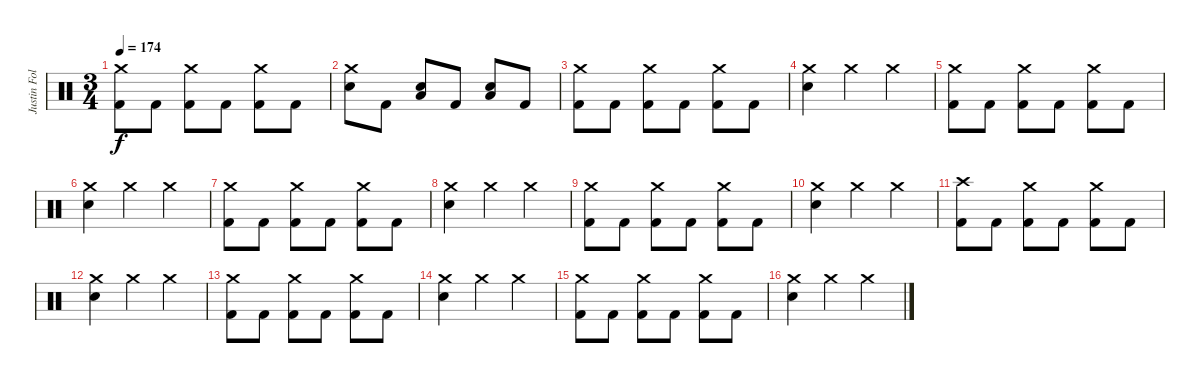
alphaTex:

\track ("Justin Foley" "Justin Fol") {instrument percussion}
\staff {score}
\articulation defaults
\ts (3 4)
\tempo 174
\clef neutral
\ks c
("Crash medium (hit)" "Kick (hit) 2").8{dy f} "Kick (hit) 2".8 ("Crash medium (hit)" "Kick (hit) 2").8 "Kick (hit) 2".8 ("Crash medium (hit)" "Kick (hit) 2").8 "Kick (hit) 2".8 |
("Crash medium (hit)" "Electric Snare (hit)").8 "Kick (hit) 2".8 ("Electric Snare (hit)" "Low Floor Tom (hit)").8 "Kick (hit) 2".8 ("Electric Snare (hit)" "Low Floor Tom (hit)").8 "Kick (hit) 2".8 |
("Crash medium (hit)" "Kick (hit) 2").8 "Kick (hit) 2".8 ("Crash medium (hit)" "Kick (hit) 2").8 "Kick (hit) 2".8 ("Crash medium (hit)" "Kick (hit) 2").8 "Kick (hit) 2".8 |
("Crash medium (hit)" "Electric Snare (hit)").4 "Crash medium (hit)".4 "Crash medium (hit)".4 |
("Crash medium (hit)" "Kick (hit) 2").8 "Kick (hit) 2".8 ("Crash medium (hit)" "Kick (hit) 2").8 "Kick (hit) 2".8 ("Crash medium (hit)" "Kick (hit) 2").8 "Kick (hit) 2".8 |
("Crash medium (hit)" "Electric Snare (hit)").4 "Crash medium (hit)".4 "Crash medium (hit)".4 |
("Crash medium (hit)" "Kick (hit) 2").8 "Kick (hit) 2".8 ("Crash medium (hit)" "Kick (hit) 2").8 "Kick (hit) 2".8 ("Crash medium (hit)" "Kick (hit) 2").8 "Kick (hit) 2".8 |
("Crash medium (hit)" "Electric Snare (hit)").4 "Crash medium (hit)".4 "Crash medium (hit)".4 |
("Crash medium (hit)" "Kick (hit) 2").8 "Kick (hit) 2".8 ("Crash medium (hit)" "Kick (hit) 2").8 "Kick (hit) 2".8 ("Crash medium (hit)" "Kick (hit) 2").8 "Kick (hit) 2".8 |
("Crash medium (hit)" "Electric Snare (hit)").4 "Crash medium (hit)".4 "Crash medium (hit)".4 |
("Crash high (hit)" "Kick (hit) 2").8 "Kick (hit) 2".8 ("Crash medium (hit)" "Kick (hit) 2").8 "Kick (hit) 2".8 ("Crash medium (hit)" "Kick (hit) 2").8 "Kick (hit) 2".8 |
("Crash medium (hit)" "Electric Snare (hit)").4 "Crash medium (hit)".4 "Crash medium (hit)".4 |
("Crash medium (hit)" "Kick (hit) 2").8 "Kick (hit) 2".8 ("Crash medium (hit)" "Kick (hit) 2").8 "Kick (hit) 2".8 ("Crash medium (hit)" "Kick (hit) 2").8 "Kick (hit) 2".8 |
("Crash medium (hit)" "Electric Snare (hit)").4 "Crash medium (hit)".4 "Crash medium (hit)".4 |
("Crash medium (hit)" "Kick (hit) 2").8 "Kick (hit) 2".8 ("Crash medium (hit)" "Kick (hit) 2").8 "Kick (hit) 2".8 ("Crash medium (hit)" "Kick (hit) 2").8 "Kick (hit) 2".8 |
("Crash medium (hit)" "Electric Snare (hit)").4 "Crash medium (hit)".4 "Crash medium (hit)".4
